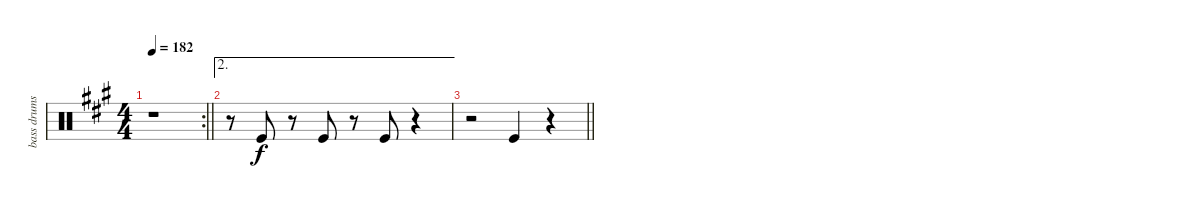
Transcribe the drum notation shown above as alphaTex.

\track ("bass drums" "bass drums") {instrument percussion}
\staff {score}
\articulation defaults
\rc 2
\ts (4 4)
\tempo 182
\clef neutral
\barLineRight lightlight
\ks f#minor
r.1{dy f} |
\ae 2
r.8 "Kick (hit)".8 r.8 "Kick (hit)".8 r.8 "Kick (hit)".8 r.4 |
\barLineRight lightlight
r.2 "Kick (hit)".4 r.4
